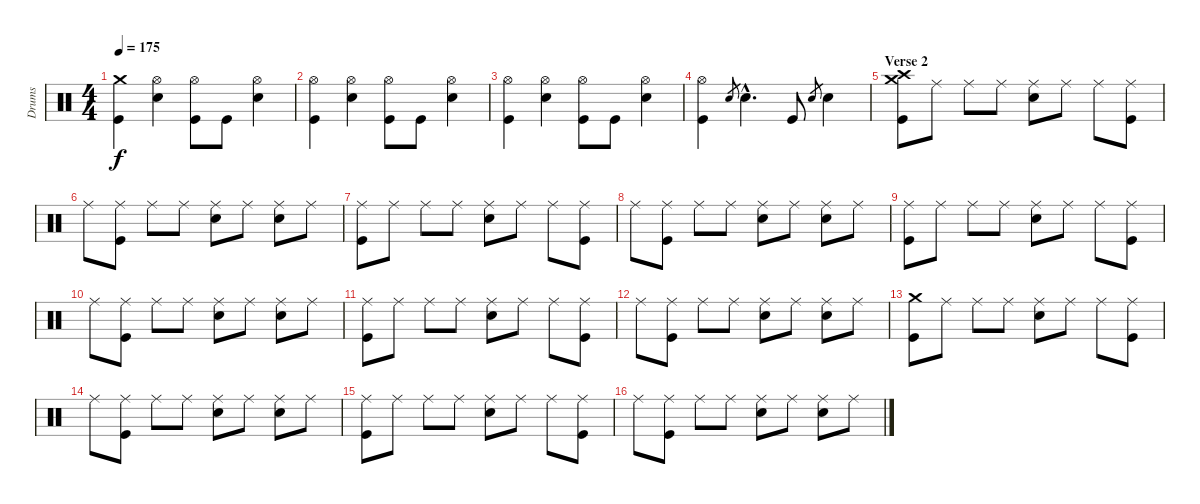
\track ("Drums" "Drums") {instrument percussion}
\staff {score}
\articulation defaults
\ts (4 4)
\tempo 175
\clef neutral
\ks c
("Crash medium (hit)" "Kick (hit)").4{dy f} ("Hi-Hat (open)" "Electric Snare (hit)").4 ("Hi-Hat (open)" "Kick (hit)").8 "Kick (hit)".8 ("Hi-Hat (open)" "Electric Snare (hit)").4 |
("Hi-Hat (open)" "Kick (hit)").4 ("Hi-Hat (open)" "Electric Snare (hit)").4 ("Hi-Hat (open)" "Kick (hit)").8 "Kick (hit)".8 ("Hi-Hat (open)" "Electric Snare (hit)").4 |
("Hi-Hat (open)" "Kick (hit)").4 ("Hi-Hat (open)" "Electric Snare (hit)").4 ("Hi-Hat (open)" "Kick (hit)").8 "Kick (hit)".8 ("Hi-Hat (open)" "Electric Snare (hit)").4 |
("Hi-Hat (open)" "Kick (hit)").4 "Electric Snare (hit)".8{gr} "Electric Snare (hit)"{hac}.4{d} "Kick (hit)".8 "Electric Snare (hit)".8{gr} "Electric Snare (hit)".4 |
\section ("" "Verse 2")
("Crash high (hit)" "Crash medium (hit)" "Kick (hit)").8 "Ride (middle)".8 "Ride (middle)".8 "Ride (middle)".8 ("Ride (middle)" "Electric Snare (hit)").8 "Ride (middle)".8 "Ride (middle)".8 ("Ride (middle)" "Kick (hit)").8 |
"Ride (middle)".8 ("Ride (middle)" "Kick (hit)").8 "Ride (middle)".8 "Ride (middle)".8 ("Ride (middle)" "Electric Snare (hit)").8 "Ride (middle)".8 ("Ride (middle)" "Electric Snare (hit)").8 "Ride (middle)".8 |
("Ride (middle)" "Kick (hit)").8 "Ride (middle)".8 "Ride (middle)".8 "Ride (middle)".8 ("Ride (middle)" "Electric Snare (hit)").8 "Ride (middle)".8 "Ride (middle)".8 ("Ride (middle)" "Kick (hit)").8 |
"Ride (middle)".8 ("Ride (middle)" "Kick (hit)").8 "Ride (middle)".8 "Ride (middle)".8 ("Ride (middle)" "Electric Snare (hit)").8 "Ride (middle)".8 ("Ride (middle)" "Electric Snare (hit)").8 "Ride (middle)".8 |
("Ride (middle)" "Kick (hit)").8 "Ride (middle)".8 "Ride (middle)".8 "Ride (middle)".8 ("Ride (middle)" "Electric Snare (hit)").8 "Ride (middle)".8 "Ride (middle)".8 ("Ride (middle)" "Kick (hit)").8 |
"Ride (middle)".8 ("Ride (middle)" "Kick (hit)").8 "Ride (middle)".8 "Ride (middle)".8 ("Ride (middle)" "Electric Snare (hit)").8 "Ride (middle)".8 ("Ride (middle)" "Electric Snare (hit)").8 "Ride (middle)".8 |
("Ride (middle)" "Kick (hit)").8 "Ride (middle)".8 "Ride (middle)".8 "Ride (middle)".8 ("Ride (middle)" "Electric Snare (hit)").8 "Ride (middle)".8 "Ride (middle)".8 ("Ride (middle)" "Kick (hit)").8 |
"Ride (middle)".8 ("Ride (middle)" "Kick (hit)").8 "Ride (middle)".8 "Ride (middle)".8 ("Ride (middle)" "Electric Snare (hit)").8 "Ride (middle)".8 ("Ride (middle)" "Electric Snare (hit)").8 "Ride (middle)".8 |
("Crash medium (hit)" "Kick (hit)").8 "Ride (middle)".8 "Ride (middle)".8 "Ride (middle)".8 ("Ride (middle)" "Electric Snare (hit)").8 "Ride (middle)".8 "Ride (middle)".8 ("Ride (middle)" "Kick (hit)").8 |
"Ride (middle)".8 ("Ride (middle)" "Kick (hit)").8 "Ride (middle)".8 "Ride (middle)".8 ("Ride (middle)" "Electric Snare (hit)").8 "Ride (middle)".8 ("Ride (middle)" "Electric Snare (hit)").8 "Ride (middle)".8 |
("Ride (middle)" "Kick (hit)").8 "Ride (middle)".8 "Ride (middle)".8 "Ride (middle)".8 ("Ride (middle)" "Electric Snare (hit)").8 "Ride (middle)".8 "Ride (middle)".8 ("Ride (middle)" "Kick (hit)").8 |
"Ride (middle)".8 ("Ride (middle)" "Kick (hit)").8 "Ride (middle)".8 "Ride (middle)".8 ("Ride (middle)" "Electric Snare (hit)").8 "Ride (middle)".8 ("Ride (middle)" "Electric Snare (hit)").8 "Ride (middle)".8
